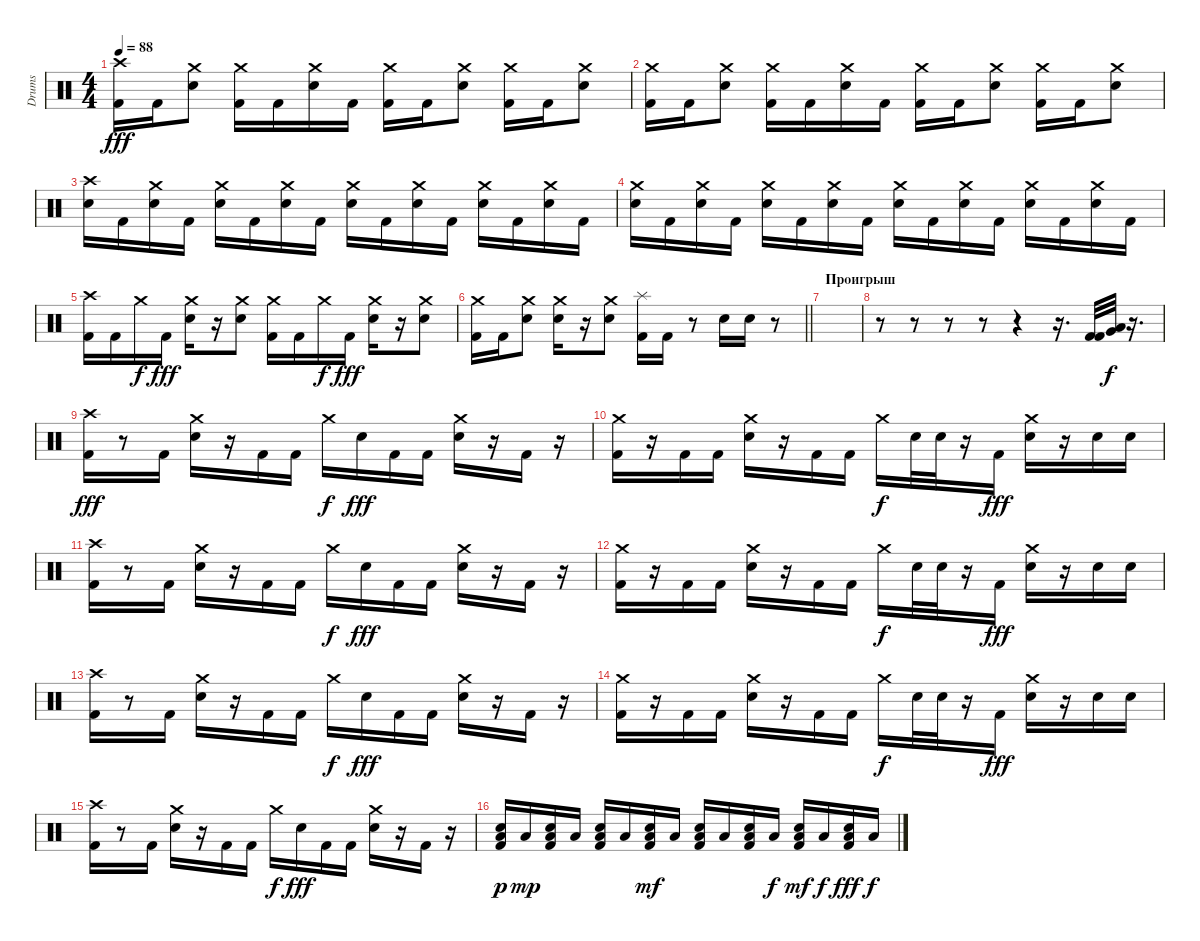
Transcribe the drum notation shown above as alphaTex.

\track ("Drums" "Drums") {instrument percussion}
\staff {score}
\articulation defaults
\ts (4 4)
\tempo 88
\clef neutral
\ks c
("Kick (hit) 2" "Crash high (hit)").16{dy fff} "Kick (hit) 2".16 ("Electric Snare (hit)" "Crash medium (hit)").8 ("Kick (hit) 2" "Crash medium (hit)").16 "Kick (hit) 2".16 ("Electric Snare (hit)" "Crash medium (hit)").16 "Kick (hit) 2".16 ("Kick (hit) 2" "Crash medium (hit)").16 "Kick (hit) 2".16 ("Electric Snare (hit)" "Crash medium (hit)").8 ("Kick (hit) 2" "Crash medium (hit)").16 "Kick (hit) 2".16 ("Electric Snare (hit)" "Crash medium (hit)").8 |
("Kick (hit) 2" "Crash medium (hit)").16 "Kick (hit) 2".16 ("Electric Snare (hit)" "Crash medium (hit)").8 ("Kick (hit) 2" "Crash medium (hit)").16 "Kick (hit) 2".16 ("Electric Snare (hit)" "Crash medium (hit)").16 "Kick (hit) 2".16 ("Kick (hit) 2" "Crash medium (hit)").16 "Kick (hit) 2".16 ("Electric Snare (hit)" "Crash medium (hit)").8 ("Kick (hit) 2" "Crash medium (hit)").16 "Kick (hit) 2".16 ("Electric Snare (hit)" "Crash medium (hit)").8 |
("Electric Snare (hit)" "Crash high (hit)").16 "Kick (hit) 2".16 ("Electric Snare (hit)" "Crash medium (hit)").16 "Kick (hit) 2".16 ("Electric Snare (hit)" "Crash medium (hit)").16 "Kick (hit) 2".16 ("Electric Snare (hit)" "Crash medium (hit)").16 "Kick (hit) 2".16 ("Electric Snare (hit)" "Crash medium (hit)").16 "Kick (hit) 2".16 ("Electric Snare (hit)" "Crash medium (hit)").16 "Kick (hit) 2".16 ("Electric Snare (hit)" "Crash medium (hit)").16 "Kick (hit) 2".16 ("Electric Snare (hit)" "Crash medium (hit)").16 "Kick (hit) 2".16 |
("Electric Snare (hit)" "Crash medium (hit)").16 "Kick (hit) 2".16 ("Electric Snare (hit)" "Crash medium (hit)").16 "Kick (hit) 2".16 ("Electric Snare (hit)" "Crash medium (hit)").16 "Kick (hit) 2".16 ("Electric Snare (hit)" "Crash medium (hit)").16 "Kick (hit) 2".16 ("Electric Snare (hit)" "Crash medium (hit)").16 "Kick (hit) 2".16 ("Electric Snare (hit)" "Crash medium (hit)").16 "Kick (hit) 2".16 ("Electric Snare (hit)" "Crash medium (hit)").16 "Kick (hit) 2".16 ("Electric Snare (hit)" "Crash medium (hit)").16 "Kick (hit) 2".16 |
("Kick (hit) 2" "Crash high (hit)").16 "Kick (hit) 2".16 "Crash medium (hit)".16{dy f} "Kick (hit) 2".16{dy fff} ("Electric Snare (hit)" "Crash medium (hit)").16 r.16 ("Electric Snare (hit)" "Crash medium (hit)").8 ("Kick (hit) 2" "Crash medium (hit)").16 "Kick (hit) 2".16 "Crash medium (hit)".16{dy f} "Kick (hit) 2".16{dy fff} ("Electric Snare (hit)" "Crash medium (hit)").16 r.16 ("Electric Snare (hit)" "Crash medium (hit)").8 |
\barLineRight lightlight
("Kick (hit) 2" "Crash medium (hit)").16 "Kick (hit) 2".16 ("Electric Snare (hit)" "Crash medium (hit)").8 ("Electric Snare (hit)" "Crash medium (hit)").16 r.16 ("Electric Snare (hit)" "Crash medium (hit)").8 ("Kick (hit) 2" "Splash (hit)").16 "Kick (hit) 2".16 r.8 "Electric Snare (hit)".16 "Electric Snare (hit)".16 r.8 |
\section ("" "Проигрыш")
|
r.8 r.8 r.8 r.8 r.4 r.16{d} ("Kick (hit) 2" "Kick (hit) 2").32 ("Very Low Tom (hit)" "Low Floor Tom (hit)").32{dy f} r.16{d} |
("Kick (hit) 2" "Crash high (hit)").16{dy fff} r.8 "Kick (hit) 2".16 ("Electric Snare (hit)" "Crash medium (hit)").16 r.16 "Kick (hit) 2".16 "Kick (hit) 2".16 "Crash medium (hit)".16{dy f} "Electric Snare (hit)".16{dy fff} "Kick (hit) 2".16 "Kick (hit) 2".16 ("Electric Snare (hit)" "Crash medium (hit)").16 r.16 "Kick (hit) 2".16 r.16 |
("Kick (hit) 2" "Crash medium (hit)").16 r.16 "Kick (hit) 2".16 "Kick (hit) 2".16 ("Electric Snare (hit)" "Crash medium (hit)").16 r.16 "Kick (hit) 2".16 "Kick (hit) 2".16 "Crash medium (hit)".16{dy f} "Electric Snare (hit)".32 "Electric Snare (hit)".32 r.16 "Kick (hit) 2".16{dy fff} ("Electric Snare (hit)" "Crash medium (hit)").16 r.16 "Electric Snare (hit)".16 "Electric Snare (hit)".16 |
("Kick (hit) 2" "Crash high (hit)").16 r.8 "Kick (hit) 2".16 ("Electric Snare (hit)" "Crash medium (hit)").16 r.16 "Kick (hit) 2".16 "Kick (hit) 2".16 "Crash medium (hit)".16{dy f} "Electric Snare (hit)".16{dy fff} "Kick (hit) 2".16 "Kick (hit) 2".16 ("Electric Snare (hit)" "Crash medium (hit)").16 r.16 "Kick (hit) 2".16 r.16 |
("Kick (hit) 2" "Crash medium (hit)").16 r.16 "Kick (hit) 2".16 "Kick (hit) 2".16 ("Electric Snare (hit)" "Crash medium (hit)").16 r.16 "Kick (hit) 2".16 "Kick (hit) 2".16 "Crash medium (hit)".16{dy f} "Electric Snare (hit)".32 "Electric Snare (hit)".32 r.16 "Kick (hit) 2".16{dy fff} ("Electric Snare (hit)" "Crash medium (hit)").16 r.16 "Electric Snare (hit)".16 "Electric Snare (hit)".16 |
("Kick (hit) 2" "Crash high (hit)").16 r.8 "Kick (hit) 2".16 ("Electric Snare (hit)" "Crash medium (hit)").16 r.16 "Kick (hit) 2".16 "Kick (hit) 2".16 "Crash medium (hit)".16{dy f} "Electric Snare (hit)".16{dy fff} "Kick (hit) 2".16 "Kick (hit) 2".16 ("Electric Snare (hit)" "Crash medium (hit)").16 r.16 "Kick (hit) 2".16 r.16 |
("Kick (hit) 2" "Crash medium (hit)").16 r.16 "Kick (hit) 2".16 "Kick (hit) 2".16 ("Electric Snare (hit)" "Crash medium (hit)").16 r.16 "Kick (hit) 2".16 "Kick (hit) 2".16 "Crash medium (hit)".16{dy f} "Electric Snare (hit)".32 "Electric Snare (hit)".32 r.16 "Kick (hit) 2".16{dy fff} ("Electric Snare (hit)" "Crash medium (hit)").16 r.16 "Electric Snare (hit)".16 "Electric Snare (hit)".16 |
("Kick (hit) 2" "Crash high (hit)").16 r.8 "Kick (hit) 2".16 ("Electric Snare (hit)" "Crash medium (hit)").16 r.16 "Kick (hit) 2".16 "Kick (hit) 2".16 "Crash medium (hit)".16{dy f} "Electric Snare (hit)".16{dy fff} "Kick (hit) 2".16 "Kick (hit) 2".16 ("Electric Snare (hit)" "Crash medium (hit)").16 r.16 "Kick (hit) 2".16 r.16 |
("Kick (hit) 2" "Electric Snare (hit)" "Low Floor Tom (hit)").16{dy p} "Low Floor Tom (hit)".16{dy mp} ("Kick (hit) 2" "Electric Snare (hit)" "Low Floor Tom (hit)").16 "Low Floor Tom (hit)".16 ("Kick (hit) 2" "Electric Snare (hit)" "Low Floor Tom (hit)").16 "Low Floor Tom (hit)".16 ("Kick (hit) 2" "Electric Snare (hit)" "Low Floor Tom (hit)").16{dy mf} "Low Floor Tom (hit)".16 ("Kick (hit) 2" "Electric Snare (hit)" "Low Floor Tom (hit)").16 "Low Floor Tom (hit)".16 ("Kick (hit) 2" "Electric Snare (hit)" "Low Floor Tom (hit)").16 "Low Floor Tom (hit)".16{dy f} ("Kick (hit) 2" "Electric Snare (hit)" "Low Floor Tom (hit)").16{dy mf} "Low Floor Tom (hit)".16{dy f} ("Kick (hit) 2" "Electric Snare (hit)" "Low Floor Tom (hit)").16{dy fff} "Low Floor Tom (hit)".16{dy f}
